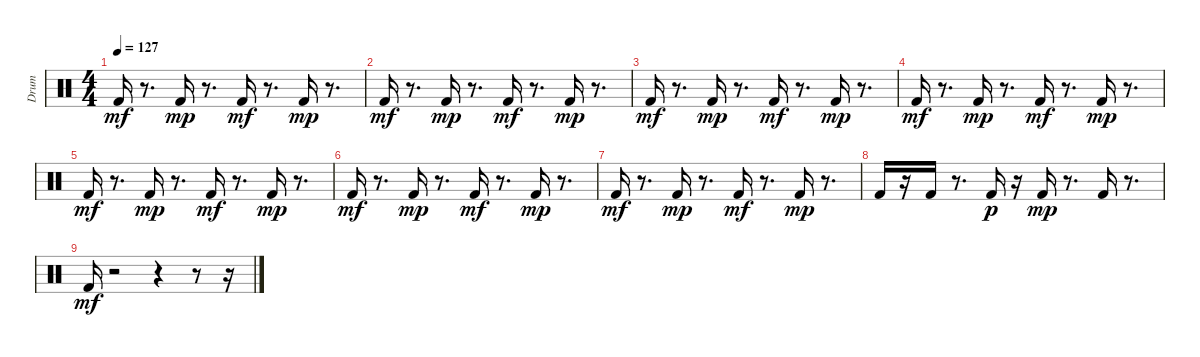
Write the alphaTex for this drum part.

\track ("Drum" "Drum") {instrument percussion}
\staff {score}
\articulation defaults
\ts (4 4)
\tempo 127
\clef neutral
\ks c "Kick (hit) 2".16{dy mf}
r.8{d} "Kick (hit) 2".16{dy mp} r.8{d} "Kick (hit) 2".16{dy mf} r.8{d} "Kick (hit) 2".16{dy mp} r.8{d} |
"Kick (hit) 2".16{dy mf} r.8{d} "Kick (hit) 2".16{dy mp} r.8{d} "Kick (hit) 2".16{dy mf} r.8{d} "Kick (hit) 2".16{dy mp} r.8{d} |
"Kick (hit) 2".16{dy mf} r.8{d} "Kick (hit) 2".16{dy mp} r.8{d} "Kick (hit) 2".16{dy mf} r.8{d} "Kick (hit) 2".16{dy mp} r.8{d} |
"Kick (hit) 2".16{dy mf} r.8{d} "Kick (hit) 2".16{dy mp} r.8{d} "Kick (hit) 2".16{dy mf} r.8{d} "Kick (hit) 2".16{dy mp} r.8{d} |
"Kick (hit) 2".16{dy mf} r.8{d} "Kick (hit) 2".16{dy mp} r.8{d} "Kick (hit) 2".16{dy mf} r.8{d} "Kick (hit) 2".16{dy mp} r.8{d} |
"Kick (hit) 2".16{dy mf} r.8{d} "Kick (hit) 2".16{dy mp} r.8{d} "Kick (hit) 2".16{dy mf} r.8{d} "Kick (hit) 2".16{dy mp} r.8{d} |
"Kick (hit) 2".16{dy mf} r.8{d} "Kick (hit) 2".16{dy mp} r.8{d} "Kick (hit) 2".16{dy mf} r.8{d} "Kick (hit) 2".16{dy mp} r.8{d} |
"Kick (hit) 2".16 r.16 "Kick (hit) 2".16 r.8{d} "Kick (hit) 2".16{dy p} r.16 "Kick (hit) 2".16{dy mp} r.8{d} "Kick (hit) 2".16 r.8{d} |
"Kick (hit) 2".16{dy mf} r.2 r.4 r.8 r.16
